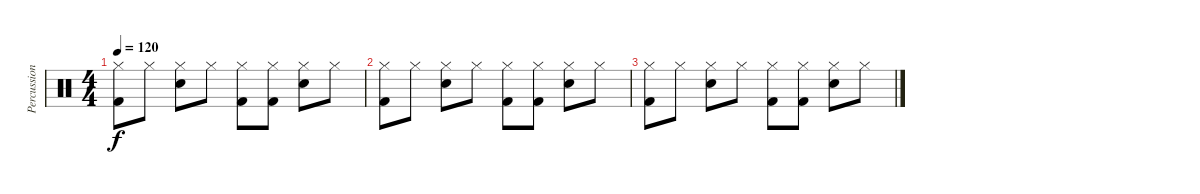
\track ("Percussion" "Percussion") {instrument percussion}
\staff {score}
\articulation defaults
\ts (4 4)
\tempo 120
\clef neutral
\ks c
("Hi-Hat (closed)" "Kick (hit) 2").8{dy f} "Hi-Hat (closed)".8 ("Hi-Hat (closed)" "Electric Snare (hit)").8 "Hi-Hat (closed)".8 ("Hi-Hat (closed)" "Kick (hit) 2").8 ("Hi-Hat (closed)" "Kick (hit) 2").8 ("Hi-Hat (closed)" "Electric Snare (hit)").8 "Hi-Hat (closed)".8 |
("Hi-Hat (closed)" "Kick (hit) 2").8 "Hi-Hat (closed)".8 ("Hi-Hat (closed)" "Electric Snare (hit)").8 "Hi-Hat (closed)".8 ("Hi-Hat (closed)" "Kick (hit) 2").8 ("Hi-Hat (closed)" "Kick (hit) 2").8 ("Hi-Hat (closed)" "Electric Snare (hit)").8 "Hi-Hat (closed)".8 |
("Hi-Hat (closed)" "Kick (hit) 2").8 "Hi-Hat (closed)".8 ("Hi-Hat (closed)" "Electric Snare (hit)").8 "Hi-Hat (closed)".8 ("Hi-Hat (closed)" "Kick (hit) 2").8 ("Hi-Hat (closed)" "Kick (hit) 2").8 ("Hi-Hat (closed)" "Electric Snare (hit)").8 "Hi-Hat (closed)".8
